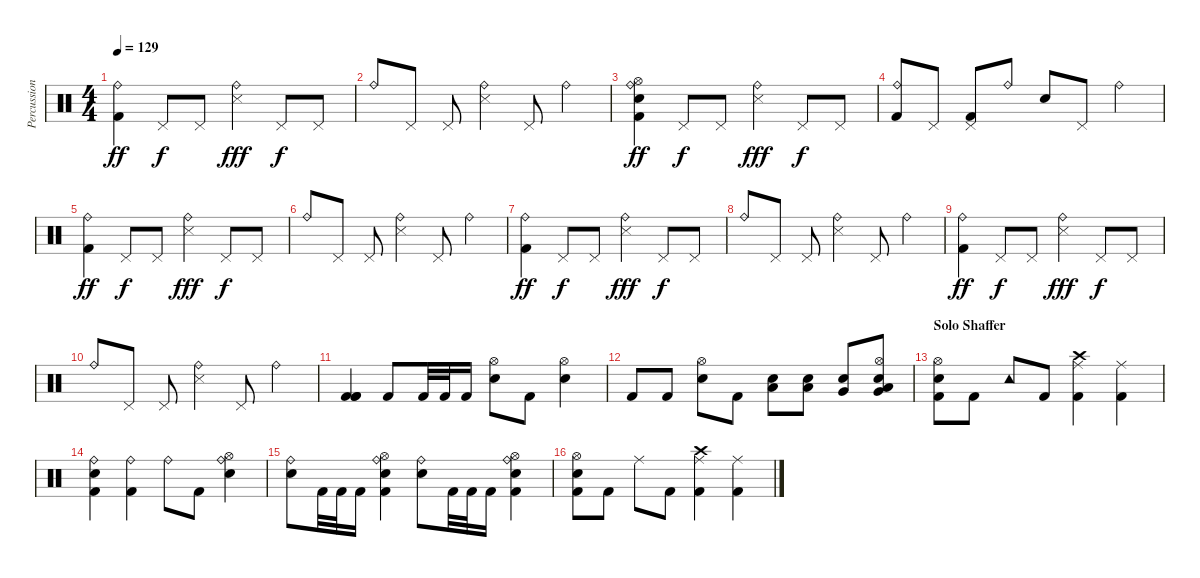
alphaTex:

\track ("Percussion" "Percussion") {instrument percussion}
\staff {score}
\articulation defaults
\ts (4 4)
\tempo 129
\clef neutral
\ks c
("Ride (bell)" "Kick (hit) 2").4{dy ff} "Pedal Hi-Hat (hit)".8{dy f} "Pedal Hi-Hat (hit)".8 ("Ride (bell)" "Snare (side stick) 3").4{dy fff} "Pedal Hi-Hat (hit)".8{dy f} "Pedal Hi-Hat (hit)".8 |
"Ride (bell)".8 "Pedal Hi-Hat (hit)".8 "Pedal Hi-Hat (hit)".8 ("Ride (bell)" "Snare (side stick) 3").4 "Pedal Hi-Hat (hit)".8 "Ride (bell)".4 |
("Ride (bell)" "Electric Snare (hit)" "Kick (hit) 2" "Hi-Hat (open)").4{dy ff} "Pedal Hi-Hat (hit)".8{dy f} "Pedal Hi-Hat (hit)".8 ("Ride (bell)" "Snare (side stick) 3").4{dy fff} "Pedal Hi-Hat (hit)".8{dy f} "Pedal Hi-Hat (hit)".8 |
("Ride (bell)" "Kick (hit) 2").8 "Pedal Hi-Hat (hit)".8 ("Pedal Hi-Hat (hit)" "Kick (hit) 2").8 "Ride (bell)".8 "Snare (hit) 2".8 "Pedal Hi-Hat (hit)".8 "Ride (bell)".4 |
("Ride (bell)" "Kick (hit) 2").4{dy ff} "Pedal Hi-Hat (hit)".8{dy f} "Pedal Hi-Hat (hit)".8 ("Ride (bell)" "Snare (side stick) 3").4{dy fff} "Pedal Hi-Hat (hit)".8{dy f} "Pedal Hi-Hat (hit)".8 |
"Ride (bell)".8 "Pedal Hi-Hat (hit)".8 "Pedal Hi-Hat (hit)".8 ("Ride (bell)" "Snare (side stick) 3").4 "Pedal Hi-Hat (hit)".8 "Ride (bell)".4 |
("Ride (bell)" "Kick (hit) 2").4{dy ff} "Pedal Hi-Hat (hit)".8{dy f} "Pedal Hi-Hat (hit)".8 ("Ride (bell)" "Snare (side stick) 3").4{dy fff} "Pedal Hi-Hat (hit)".8{dy f} "Pedal Hi-Hat (hit)".8 |
"Ride (bell)".8 "Pedal Hi-Hat (hit)".8 "Pedal Hi-Hat (hit)".8 ("Ride (bell)" "Snare (side stick) 3").4 "Pedal Hi-Hat (hit)".8 "Ride (bell)".4 |
("Ride (bell)" "Kick (hit) 2").4{dy ff} "Pedal Hi-Hat (hit)".8{dy f} "Pedal Hi-Hat (hit)".8 ("Ride (bell)" "Snare (side stick) 3").4{dy fff} "Pedal Hi-Hat (hit)".8{dy f} "Pedal Hi-Hat (hit)".8 |
"Ride (bell)".8 "Pedal Hi-Hat (hit)".8 "Pedal Hi-Hat (hit)".8 ("Ride (bell)" "Snare (side stick) 3").4 "Pedal Hi-Hat (hit)".8 "Ride (bell)".4 |
("Kick (hit) 2" "Kick (hit) 2" "Kick (hit) 2").4{bd 120} "Kick (hit) 2".8 "Kick (hit) 2".32 "Kick (hit) 2".32 "Kick (hit) 2".16 ("Hi-Hat (open)" "Electric Snare (hit)").8 "Kick (hit) 2".8 ("Hi-Hat (open)" "Electric Snare (hit)").4 |
"Kick (hit) 2".8 "Kick (hit) 2".8 ("Hi-Hat (open)" "Electric Snare (hit)").8 "Kick (hit) 2".8 ("Low Tom (hit)" "Electric Snare (hit)").8 ("Low Tom (hit)" "Electric Snare (hit)").8 ("Very Low Tom (hit)" "Electric Snare (hit)").8 ("Hi-Hat (open)" "Very Low Tom (hit)" "Low Tom (hit)" "Electric Snare (hit)").8 |
\section ("" "Solo Shaffer")
("Hi-Hat (open)" "Electric Snare (hit)" "Kick (hit) 2").8 "Kick (hit) 2".8 "Tambourine (hit)".8 "Kick (hit) 2".8 ("Ride (middle)" "Crash high (hit)" "Kick (hit) 2").4 ("Ride (middle)" "Kick (hit) 2").4 |
("Ride (bell)" "Electric Snare (hit)" "Kick (hit) 2").4 ("Ride (bell)" "Kick (hit) 2").4 "Ride (bell)".8 "Kick (hit) 2".8 ("Ride (bell)" "Hi-Hat (open)" "Electric Snare (hit)").4 |
("Ride (bell)" "Electric Snare (hit)").8 "Kick (hit) 2".32 "Kick (hit) 2".32 "Kick (hit) 2".16 ("Ride (bell)" "Hi-Hat (open)" "Kick (hit) 2" "Electric Snare (hit)").4 ("Ride (bell)" "Electric Snare (hit)").8 "Kick (hit) 2".32 "Kick (hit) 2".32 "Kick (hit) 2".16 ("Ride (bell)" "Hi-Hat (open)" "Kick (hit) 2" "Electric Snare (hit)").4 |
("Hi-Hat (open)" "Electric Snare (hit)" "Kick (hit) 2").8 "Kick (hit) 2".8 "Ride (middle)".8 "Kick (hit) 2".8 ("Ride (middle)" "Crash high (hit)" "Kick (hit) 2").4 ("Ride (middle)" "Kick (hit) 2").4
